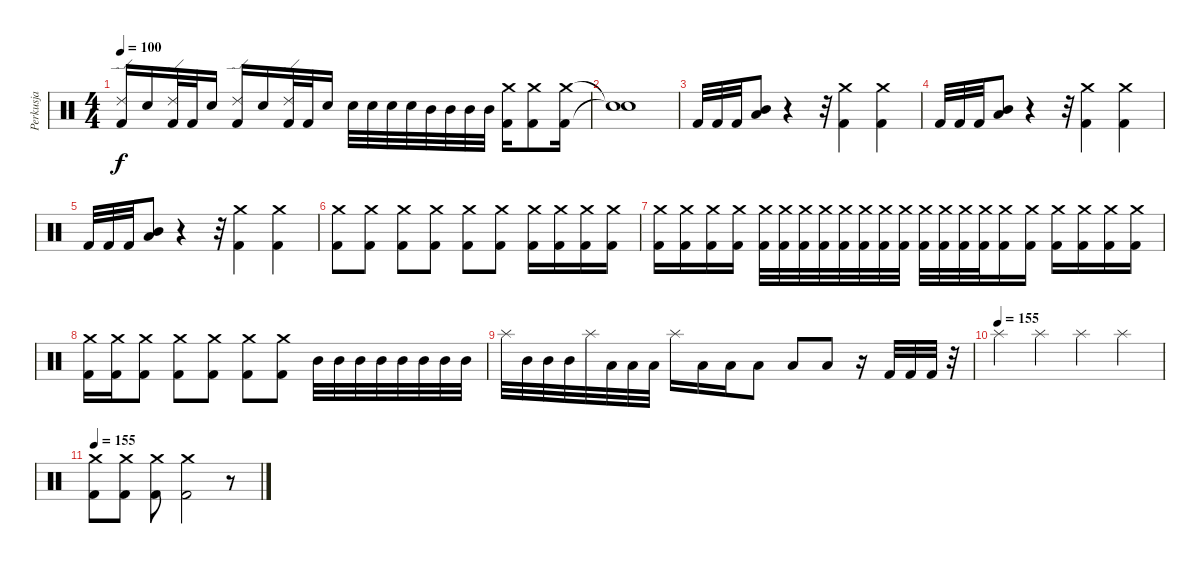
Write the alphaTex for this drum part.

\track ("Perkusja" "Perkusja") {instrument percussion}
\staff {score}
\articulation defaults
\ts (4 4)
\tempo 100
\clef neutral
\ks c
("Ride (edge) 2" "Kick (hit) 2").16{dy f} "Snare (hit) 2".16 ("Ride (edge) 2" "Kick (hit) 2").32 "Kick (hit) 2".32 "Snare (hit) 2".16 ("Ride (edge) 2" "Kick (hit) 2").16 "Snare (hit) 2".16 ("Ride (edge) 2" "Kick (hit) 2").32 "Kick (hit) 2".32 "Snare (hit) 2".16 "Snare (hit) 2".32 "Snare (hit) 2".32 "Snare (hit) 2".32 "Snare (hit) 2".32 "Mid Tom (hit)".32 "Mid Tom (hit)".32 "Mid Tom (hit)".32 "Mid Tom (hit)".32 ("Crash medium (hit)" "Kick (hit) 2").16 ("Crash medium (hit)" "Kick (hit) 2").8 ("Crash medium (hit)" "Kick (hit) 2").16 |
("Snare (hit)"{t} "Snare (hit)"{t}).1 |
"Kick (hit) 2".32 "Kick (hit) 2".32 "Kick (hit) 2".32 ("Mid Tom (hit)" "Low Tom (hit)").8 r.4 r.32 ("Crash medium (hit)" "Kick (hit) 2").4 ("Crash medium (hit)" "Kick (hit) 2").4 |
"Kick (hit) 2".32 "Kick (hit) 2".32 "Kick (hit) 2".32 ("Mid Tom (hit)" "Low Tom (hit)").8 r.4 r.32 ("Crash medium (hit)" "Kick (hit) 2").4 ("Crash medium (hit)" "Kick (hit) 2").4 |
"Kick (hit) 2".32 "Kick (hit) 2".32 "Kick (hit) 2".32 ("Mid Tom (hit)" "Low Tom (hit)").8 r.4 r.32 ("Crash medium (hit)" "Kick (hit) 2").4 ("Crash medium (hit)" "Kick (hit) 2").4 |
("Crash medium (hit)" "Kick (hit) 2").8 ("Crash medium (hit)" "Kick (hit) 2").8 ("Crash medium (hit)" "Kick (hit) 2").8 ("Crash medium (hit)" "Kick (hit) 2").8 ("Crash medium (hit)" "Kick (hit) 2").8 ("Crash medium (hit)" "Kick (hit) 2").8 ("Crash medium (hit)" "Kick (hit) 2").16 ("Crash medium (hit)" "Kick (hit) 2").16 ("Crash medium (hit)" "Kick (hit) 2").16 ("Crash medium (hit)" "Kick (hit) 2").16 |
("Crash medium (hit)" "Kick (hit) 2").16 ("Crash medium (hit)" "Kick (hit) 2").16 ("Crash medium (hit)" "Kick (hit) 2").16 ("Crash medium (hit)" "Kick (hit) 2").16 ("Crash medium (hit)" "Kick (hit) 2").32 ("Crash medium (hit)" "Kick (hit) 2").32 ("Crash medium (hit)" "Kick (hit) 2").32 ("Crash medium (hit)" "Kick (hit) 2").32 ("Crash medium (hit)" "Kick (hit) 2").32 ("Crash medium (hit)" "Kick (hit) 2").32 ("Crash medium (hit)" "Kick (hit) 2").32 ("Crash medium (hit)" "Kick (hit) 2").32 ("Crash medium (hit)" "Kick (hit) 2").32 ("Crash medium (hit)" "Kick (hit) 2").32 ("Crash medium (hit)" "Kick (hit) 2").32 ("Crash medium (hit)" "Kick (hit) 2").32 ("Crash medium (hit)" "Kick (hit) 2").16 ("Crash medium (hit)" "Kick (hit) 2").16 ("Crash medium (hit)" "Kick (hit) 2").16 ("Crash medium (hit)" "Kick (hit) 2").16 ("Crash medium (hit)" "Kick (hit) 2").16 ("Crash medium (hit)" "Kick (hit) 2").16 |
("Crash medium (hit)" "Kick (hit) 2").16 ("Crash medium (hit)" "Kick (hit) 2").16 ("Crash medium (hit)" "Kick (hit) 2").8 ("Crash medium (hit)" "Kick (hit) 2").8 ("Crash medium (hit)" "Kick (hit) 2").8 ("Crash medium (hit)" "Kick (hit) 2").8 ("Crash medium (hit)" "Kick (hit) 2").8 "Mid Tom (hit)".32 "Mid Tom (hit)".32 "Mid Tom (hit)".32 "Mid Tom (hit)".32 "Mid Tom (hit)".32 "Mid Tom (hit)".32 "Mid Tom (hit)".32 "Mid Tom (hit)".32 |
"Splash (hit)".32 "Mid Tom (hit)".32 "Mid Tom (hit)".32 "Mid Tom (hit)".32 "Splash (hit)".32 "Low Tom (hit)".32 "Low Tom (hit)".32 "Low Tom (hit)".32 "Splash (hit)".16 "Low Tom (hit)".16 "Low Tom (hit)".16 "Low Tom (hit)".8 "Low Tom (hit)".8 "Low Tom (hit)".8 r.16 "Kick (hit) 2".32 "Kick (hit) 2".32 "Kick (hit) 2".32 r.32 |
\tempo (155)
"Splash (hit)".4 "Splash (hit)".4 "Splash (hit)".4 "Splash (hit)".4 |
\tempo 155
("Crash medium (hit)" "Kick (hit) 2").8 ("Crash medium (hit)" "Kick (hit) 2").8 ("Crash medium (hit)" "Kick (hit) 2").8 ("Crash medium (hit)" "Kick (hit) 2").2 r.8
